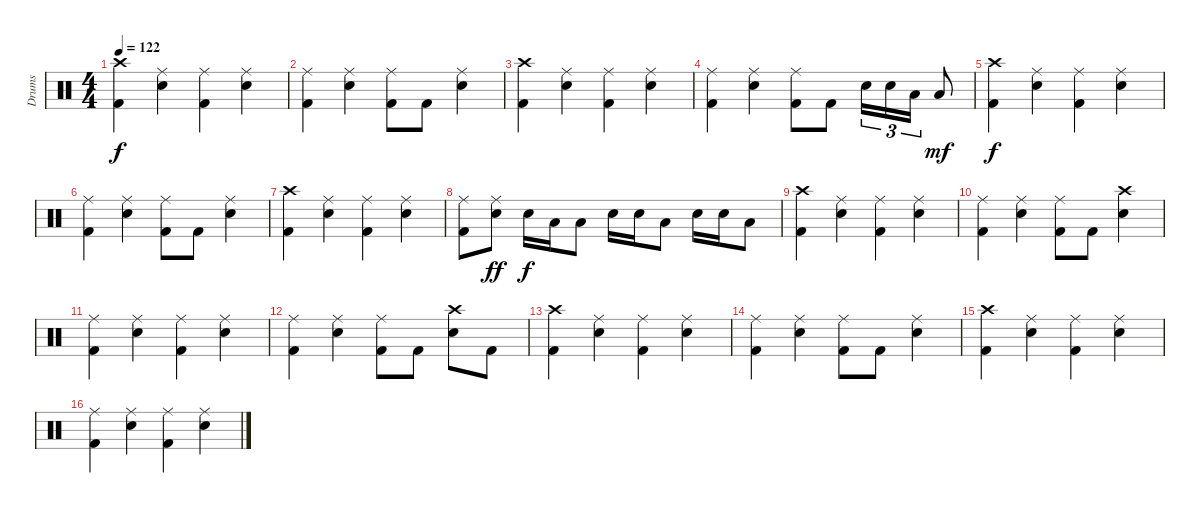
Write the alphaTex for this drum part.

\track ("Drums" "Drums") {instrument percussion}
\staff {score}
\articulation defaults
\ts (4 4)
\tempo 122
\clef neutral
\ks c
("Kick (hit) 2" "Crash high (hit)").4{dy f} ("Electric Snare (hit)" "Ride (middle)").4 ("Kick (hit) 2" "Ride (middle)").4 ("Electric Snare (hit)" "Ride (middle)").4 |
("Kick (hit) 2" "Ride (middle)").4 ("Electric Snare (hit)" "Ride (middle)").4 ("Kick (hit) 2" "Ride (middle)").8 "Kick (hit) 2".8 ("Electric Snare (hit)" "Ride (middle)").4 |
("Kick (hit) 2" "Crash high (hit)").4 ("Electric Snare (hit)" "Ride (middle)").4 ("Kick (hit) 2" "Ride (middle)").4 ("Electric Snare (hit)" "Ride (middle)").4 |
("Kick (hit) 2" "Ride (middle)").4 ("Electric Snare (hit)" "Ride (middle)").4 ("Kick (hit) 2" "Ride (middle)").8 "Kick (hit) 2".8 "Electric Snare (hit)".16{tu (3 2)} "Electric Snare (hit)".16{tu (3 2)} "Low Tom (hit)".16{tu (3 2)} "Low Tom (hit)".8{dy mf} |
("Kick (hit) 2" "Crash high (hit)").4{dy f} ("Electric Snare (hit)" "Ride (middle)").4 ("Kick (hit) 2" "Ride (middle)").4 ("Electric Snare (hit)" "Ride (middle)").4 |
("Kick (hit) 2" "Ride (middle)").4 ("Electric Snare (hit)" "Ride (middle)").4 ("Kick (hit) 2" "Ride (middle)").8 "Kick (hit) 2".8 ("Electric Snare (hit)" "Ride (middle)").4 |
("Kick (hit) 2" "Crash high (hit)").4 ("Electric Snare (hit)" "Ride (middle)").4 ("Kick (hit) 2" "Ride (middle)").4 ("Electric Snare (hit)" "Ride (middle)").4 |
("Kick (hit) 2" "Ride (middle)").8 ("Electric Snare (hit)" "Ride (middle)").8{dy ff} "Electric Snare (hit)".16{dy f} "Low Tom (hit)".16 "Low Tom (hit)".8 "Electric Snare (hit)".16 "Electric Snare (hit)".16 "Low Tom (hit)".8 "Electric Snare (hit)".16 "Electric Snare (hit)".16 "Low Tom (hit)".8 |
("Kick (hit) 2" "Crash high (hit)").4 ("Electric Snare (hit)" "Ride (middle)").4 ("Kick (hit) 2" "Ride (middle)").4 ("Electric Snare (hit)" "Ride (middle)").4 |
("Kick (hit) 2" "Ride (middle)").4 ("Electric Snare (hit)" "Ride (middle)").4 ("Kick (hit) 2" "Ride (middle)").8 "Kick (hit) 2".8 ("Electric Snare (hit)" "Crash high (hit)").4 |
("Kick (hit) 2" "Ride (middle)").4 ("Electric Snare (hit)" "Ride (middle)").4 ("Kick (hit) 2" "Ride (middle)").4 ("Electric Snare (hit)" "Ride (middle)").4 |
("Kick (hit) 2" "Ride (middle)").4 ("Electric Snare (hit)" "Ride (middle)").4 ("Kick (hit) 2" "Ride (middle)").8 "Kick (hit) 2".8 ("Electric Snare (hit)" "Crash high (hit)").8 "Kick (hit) 2".8 |
("Kick (hit) 2" "Crash high (hit)").4 ("Electric Snare (hit)" "Ride (middle)").4 ("Kick (hit) 2" "Ride (middle)").4 ("Electric Snare (hit)" "Ride (middle)").4 |
("Kick (hit) 2" "Ride (middle)").4 ("Electric Snare (hit)" "Ride (middle)").4 ("Kick (hit) 2" "Ride (middle)").8 "Kick (hit) 2".8 ("Electric Snare (hit)" "Ride (middle)").4 |
("Kick (hit) 2" "Crash high (hit)").4 ("Electric Snare (hit)" "Ride (middle)").4 ("Kick (hit) 2" "Ride (middle)").4 ("Electric Snare (hit)" "Ride (middle)").4 |
("Kick (hit) 2" "Ride (middle)").4 ("Electric Snare (hit)" "Ride (middle)").4 ("Kick (hit) 2" "Ride (middle)").4 ("Electric Snare (hit)" "Ride (middle)").4
